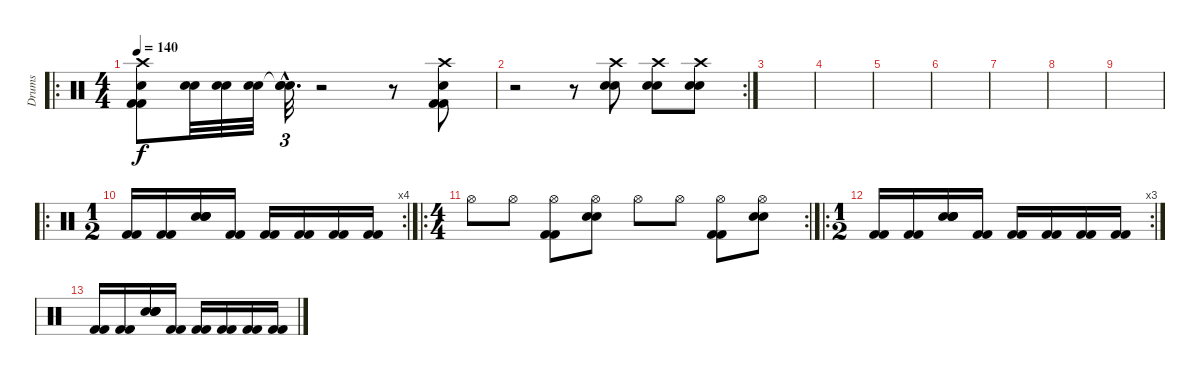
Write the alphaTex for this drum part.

\track ("Drums" "Drums") {instrument percussion}
\staff {score}
\articulation defaults
\ro
\ts (4 4)
\tempo 140
\clef neutral
\ks c
("Crash high (hit)" "Snare (hit) 2" "Kick (hit) 2" "Kick (hit) 2").8{dy f} ("Snare (hit) 2" "Snare (hit) 2").32 ("Snare (hit) 2" "Snare (hit) 2").32 ("Snare (hit) 2" "Snare (hit) 2").32 ("Snare (hit)"{hac t} "Snare (hit) 2"{hac} "Snare (hit) 2"{hac}).32{d tu (3 2)} r.2 r.8 ("Crash high (hit)" "Snare (hit) 2" "Kick (hit) 2" "Kick (hit) 2").8 |
\rc 2
r.2 r.8 ("Snare (hit) 2" "Snare (hit) 2" "Crash high (hit)").8 ("Snare (hit) 2" "Snare (hit) 2" "Crash high (hit)").8 ("Snare (hit) 2" "Snare (hit) 2" "Crash high (hit)").8 |
|
|
|
|
|
|
|
\ro
\rc 4
\ts (1 2)
("Kick (hit) 2" "Kick (hit) 2").16 ("Kick (hit) 2" "Kick (hit) 2").16 ("Electric Snare (hit)" "Electric Snare (hit)" "Snare (hit) 2" "Snare (hit) 2").16 ("Kick (hit) 2" "Kick (hit) 2").16 ("Kick (hit) 2" "Kick (hit) 2").16 ("Kick (hit) 2" "Kick (hit) 2").16 ("Kick (hit) 2" "Kick (hit) 2").16 ("Kick (hit) 2" "Kick (hit) 2").16 |
\ro
\rc 2
\ts (4 4)
"Hi-Hat (open)".8 "Hi-Hat (open)".8 ("Kick (hit) 2" "Kick (hit) 2" "Hi-Hat (open)").8 ("Electric Snare (hit)" "Electric Snare (hit)" "Hi-Hat (open)").8 "Hi-Hat (open)".8 "Hi-Hat (open)".8 ("Kick (hit) 2" "Kick (hit) 2" "Hi-Hat (open)").8 ("Electric Snare (hit)" "Electric Snare (hit)" "Hi-Hat (open)").8 |
\ro
\rc 3
\ts (1 2)
("Kick (hit) 2" "Kick (hit) 2").16 ("Kick (hit) 2" "Kick (hit) 2").16 ("Electric Snare (hit)" "Electric Snare (hit)" "Snare (hit) 2" "Snare (hit) 2").16 ("Kick (hit) 2" "Kick (hit) 2").16 ("Kick (hit) 2" "Kick (hit) 2").16 ("Kick (hit) 2" "Kick (hit) 2").16 ("Kick (hit) 2" "Kick (hit) 2").16 ("Kick (hit) 2" "Kick (hit) 2").16 |
("Kick (hit) 2" "Kick (hit) 2").16 ("Kick (hit) 2" "Kick (hit) 2").16 ("Electric Snare (hit)" "Electric Snare (hit)" "Snare (hit) 2" "Snare (hit) 2").16 ("Kick (hit) 2" "Kick (hit) 2").16 ("Kick (hit) 2" "Kick (hit) 2").16 ("Kick (hit) 2" "Kick (hit) 2").16 ("Kick (hit) 2" "Kick (hit) 2").16 ("Kick (hit) 2" "Kick (hit) 2").16
